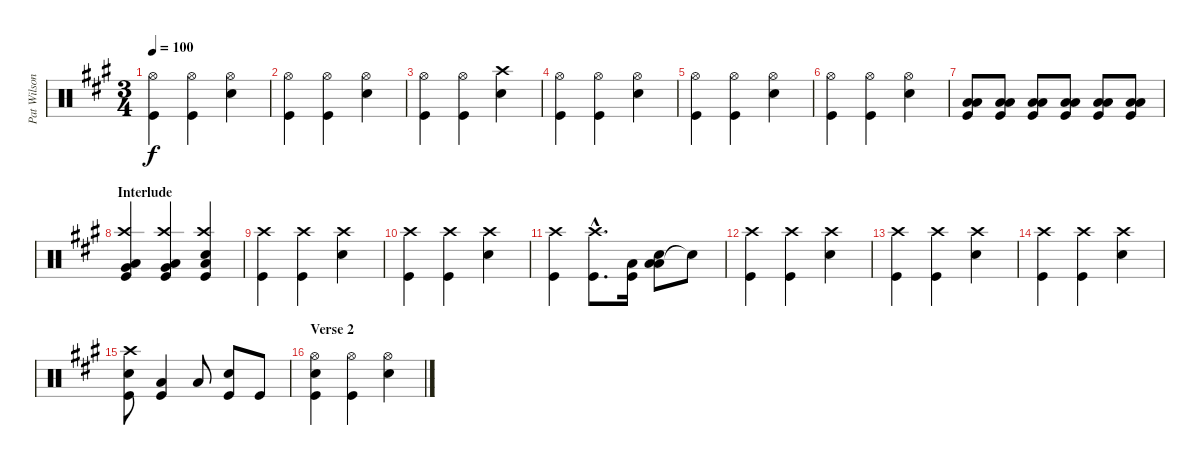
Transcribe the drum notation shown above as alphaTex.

\track ("Pat Wilson" "Pat Wilson") {instrument percussion}
\staff {score}
\articulation defaults
\ts (3 4)
\tempo 100
\clef neutral
\ks a
("Hi-Hat (open)" "Kick (hit)").4{dy f} ("Hi-Hat (open)" "Kick (hit)").4 ("Hi-Hat (open)" "Snare (hit) 2").4 |
("Hi-Hat (open)" "Kick (hit)").4 ("Hi-Hat (open)" "Kick (hit)").4 ("Hi-Hat (open)" "Snare (hit) 2").4 |
("Hi-Hat (open)" "Kick (hit)").4 ("Hi-Hat (open)" "Kick (hit)").4 ("Crash high (hit)" "Snare (hit) 2").4 |
("Hi-Hat (open)" "Kick (hit)").4 ("Hi-Hat (open)" "Kick (hit)").4 ("Hi-Hat (open)" "Snare (hit) 2").4 |
("Hi-Hat (open)" "Kick (hit)").4 ("Hi-Hat (open)" "Kick (hit)").4 ("Hi-Hat (open)" "Snare (hit) 2").4 |
("Hi-Hat (open)" "Kick (hit)").4 ("Hi-Hat (open)" "Kick (hit)").4 ("Hi-Hat (open)" "Snare (hit) 2").4 |
("Kick (hit)" "Low Floor Tom (hit)" "Low Tom (hit)").8 ("Kick (hit)" "Low Floor Tom (hit)" "Low Tom (hit)").8 ("Kick (hit)" "Low Floor Tom (hit)" "Low Tom (hit)").8 ("Kick (hit)" "Low Floor Tom (hit)" "Low Tom (hit)").8 ("Kick (hit)" "Low Floor Tom (hit)" "Low Tom (hit)").8 ("Kick (hit)" "Low Floor Tom (hit)" "Low Tom (hit)").8 |
\section ("" "Interlude")
("Crash high (hit)" "Kick (hit)" "Low Floor Tom (hit)" "Very Low Tom (hit)").4 ("Crash high (hit)" "Kick (hit)" "Low Floor Tom (hit)" "Very Low Tom (hit)").4 ("Crash high (hit)" "Snare (hit) 2" "Low Floor Tom (hit)" "Kick (hit)").4 |
("Crash high (hit)" "Kick (hit)").4 ("Crash high (hit)" "Kick (hit)").4 ("Crash high (hit)" "Snare (hit) 2").4 |
("Crash high (hit)" "Kick (hit)").4 ("Crash high (hit)" "Kick (hit)").4 ("Crash high (hit)" "Snare (hit) 2").4 |
("Crash high (hit)" "Kick (hit)").4 ("Crash high (hit)"{hac} "Kick (hit)"{hac}).8{d} ("Kick (hit)" "Low Floor Tom (hit)").16 ("Low Floor Tom (hit)" "Low Tom (hit)" "Snare (hit) 2").8 "Snare (hit)"{t}.8 |
("Crash high (hit)" "Kick (hit)").4 ("Crash high (hit)" "Kick (hit)").4 ("Crash high (hit)" "Snare (hit) 2").4 |
("Crash high (hit)" "Kick (hit)").4 ("Crash high (hit)" "Kick (hit)").4 ("Crash high (hit)" "Snare (hit) 2").4 |
("Crash high (hit)" "Kick (hit)").4 ("Crash high (hit)" "Kick (hit)").4 ("Crash high (hit)" "Snare (hit) 2").4 |
("Crash high (hit)" "Snare (hit) 2" "Kick (hit)").8 ("Low Floor Tom (hit)" "Kick (hit)").4 "Low Tom (hit)".8 ("Snare (hit) 2" "Kick (hit)").8 "Kick (hit)".8 |
\section ("" "Verse 2")
("Hi-Hat (open)" "Kick (hit)" "Snare (hit) 2").4 ("Hi-Hat (open)" "Kick (hit)").4 ("Hi-Hat (open)" "Snare (hit) 2").4
